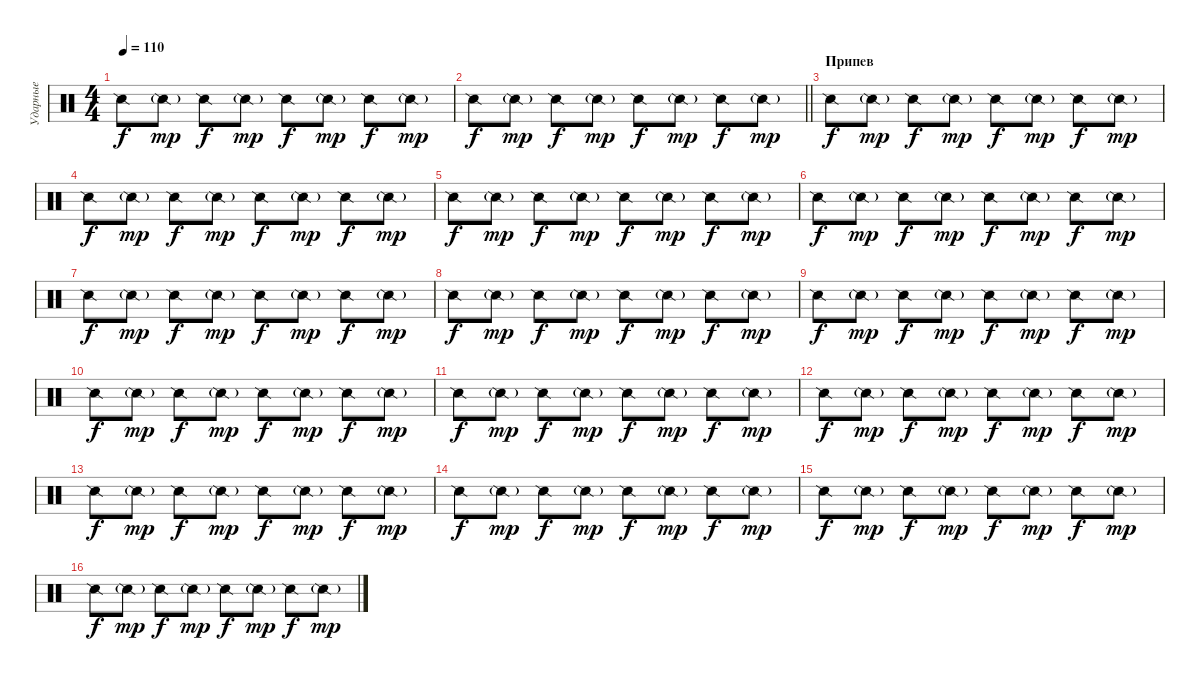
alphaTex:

\track ("Ударные" "Ударные") {instrument percussion}
\staff {score}
\articulation defaults
\ts (4 4)
\tempo 110
\clef neutral
\ks c "Snare (side stick) 2".8{dy f} "Snare (side stick) 2"{g}.8{dy mp} "Snare (side stick) 2".8{dy f} "Snare (side stick) 2"{g}.8{dy mp} "Snare (side stick) 2".8{dy f} "Snare (side stick) 2"{g}.8{dy mp} "Snare (side stick) 2".8{dy f} "Snare (side stick) 2"{g}.8{dy mp}
|
\barLineRight lightlight "Snare (side stick) 2".8{dy f} "Snare (side stick) 2"{g}.8{dy mp} "Snare (side stick) 2".8{dy f} "Snare (side stick) 2"{g}.8{dy mp} "Snare (side stick) 2".8{dy f} "Snare (side stick) 2"{g}.8{dy mp} "Snare (side stick) 2".8{dy f} "Snare (side stick) 2"{g}.8{dy mp}
|
\section ("" "Припев")
"Snare (side stick) 2".8{dy f} "Snare (side stick) 2"{g}.8{dy mp} "Snare (side stick) 2".8{dy f} "Snare (side stick) 2"{g}.8{dy mp} "Snare (side stick) 2".8{dy f} "Snare (side stick) 2"{g}.8{dy mp} "Snare (side stick) 2".8{dy f} "Snare (side stick) 2"{g}.8{dy mp} |
"Snare (side stick) 2".8{dy f} "Snare (side stick) 2"{g}.8{dy mp} "Snare (side stick) 2".8{dy f} "Snare (side stick) 2"{g}.8{dy mp} "Snare (side stick) 2".8{dy f} "Snare (side stick) 2"{g}.8{dy mp} "Snare (side stick) 2".8{dy f} "Snare (side stick) 2"{g}.8{dy mp} |
"Snare (side stick) 2".8{dy f} "Snare (side stick) 2"{g}.8{dy mp} "Snare (side stick) 2".8{dy f} "Snare (side stick) 2"{g}.8{dy mp} "Snare (side stick) 2".8{dy f} "Snare (side stick) 2"{g}.8{dy mp} "Snare (side stick) 2".8{dy f} "Snare (side stick) 2"{g}.8{dy mp} |
"Snare (side stick) 2".8{dy f} "Snare (side stick) 2"{g}.8{dy mp} "Snare (side stick) 2".8{dy f} "Snare (side stick) 2"{g}.8{dy mp} "Snare (side stick) 2".8{dy f} "Snare (side stick) 2"{g}.8{dy mp} "Snare (side stick) 2".8{dy f} "Snare (side stick) 2"{g}.8{dy mp} |
"Snare (side stick) 2".8{dy f} "Snare (side stick) 2"{g}.8{dy mp} "Snare (side stick) 2".8{dy f} "Snare (side stick) 2"{g}.8{dy mp} "Snare (side stick) 2".8{dy f} "Snare (side stick) 2"{g}.8{dy mp} "Snare (side stick) 2".8{dy f} "Snare (side stick) 2"{g}.8{dy mp} |
"Snare (side stick) 2".8{dy f} "Snare (side stick) 2"{g}.8{dy mp} "Snare (side stick) 2".8{dy f} "Snare (side stick) 2"{g}.8{dy mp} "Snare (side stick) 2".8{dy f} "Snare (side stick) 2"{g}.8{dy mp} "Snare (side stick) 2".8{dy f} "Snare (side stick) 2"{g}.8{dy mp} |
"Snare (side stick) 2".8{dy f} "Snare (side stick) 2"{g}.8{dy mp} "Snare (side stick) 2".8{dy f} "Snare (side stick) 2"{g}.8{dy mp} "Snare (side stick) 2".8{dy f} "Snare (side stick) 2"{g}.8{dy mp} "Snare (side stick) 2".8{dy f} "Snare (side stick) 2"{g}.8{dy mp} |
"Snare (side stick) 2".8{dy f} "Snare (side stick) 2"{g}.8{dy mp} "Snare (side stick) 2".8{dy f} "Snare (side stick) 2"{g}.8{dy mp} "Snare (side stick) 2".8{dy f} "Snare (side stick) 2"{g}.8{dy mp} "Snare (side stick) 2".8{dy f} "Snare (side stick) 2"{g}.8{dy mp} |
"Snare (side stick) 2".8{dy f} "Snare (side stick) 2"{g}.8{dy mp} "Snare (side stick) 2".8{dy f} "Snare (side stick) 2"{g}.8{dy mp} "Snare (side stick) 2".8{dy f} "Snare (side stick) 2"{g}.8{dy mp} "Snare (side stick) 2".8{dy f} "Snare (side stick) 2"{g}.8{dy mp} |
"Snare (side stick) 2".8{dy f} "Snare (side stick) 2"{g}.8{dy mp} "Snare (side stick) 2".8{dy f} "Snare (side stick) 2"{g}.8{dy mp} "Snare (side stick) 2".8{dy f} "Snare (side stick) 2"{g}.8{dy mp} "Snare (side stick) 2".8{dy f} "Snare (side stick) 2"{g}.8{dy mp} |
"Snare (side stick) 2".8{dy f} "Snare (side stick) 2"{g}.8{dy mp} "Snare (side stick) 2".8{dy f} "Snare (side stick) 2"{g}.8{dy mp} "Snare (side stick) 2".8{dy f} "Snare (side stick) 2"{g}.8{dy mp} "Snare (side stick) 2".8{dy f} "Snare (side stick) 2"{g}.8{dy mp} |
"Snare (side stick) 2".8{dy f} "Snare (side stick) 2"{g}.8{dy mp} "Snare (side stick) 2".8{dy f} "Snare (side stick) 2"{g}.8{dy mp} "Snare (side stick) 2".8{dy f} "Snare (side stick) 2"{g}.8{dy mp} "Snare (side stick) 2".8{dy f} "Snare (side stick) 2"{g}.8{dy mp} |
"Snare (side stick) 2".8{dy f} "Snare (side stick) 2"{g}.8{dy mp} "Snare (side stick) 2".8{dy f} "Snare (side stick) 2"{g}.8{dy mp} "Snare (side stick) 2".8{dy f} "Snare (side stick) 2"{g}.8{dy mp} "Snare (side stick) 2".8{dy f} "Snare (side stick) 2"{g}.8{dy mp} |
"Snare (side stick) 2".8{dy f} "Snare (side stick) 2"{g}.8{dy mp} "Snare (side stick) 2".8{dy f} "Snare (side stick) 2"{g}.8{dy mp} "Snare (side stick) 2".8{dy f} "Snare (side stick) 2"{g}.8{dy mp} "Snare (side stick) 2".8{dy f} "Snare (side stick) 2"{g}.8{dy mp}
